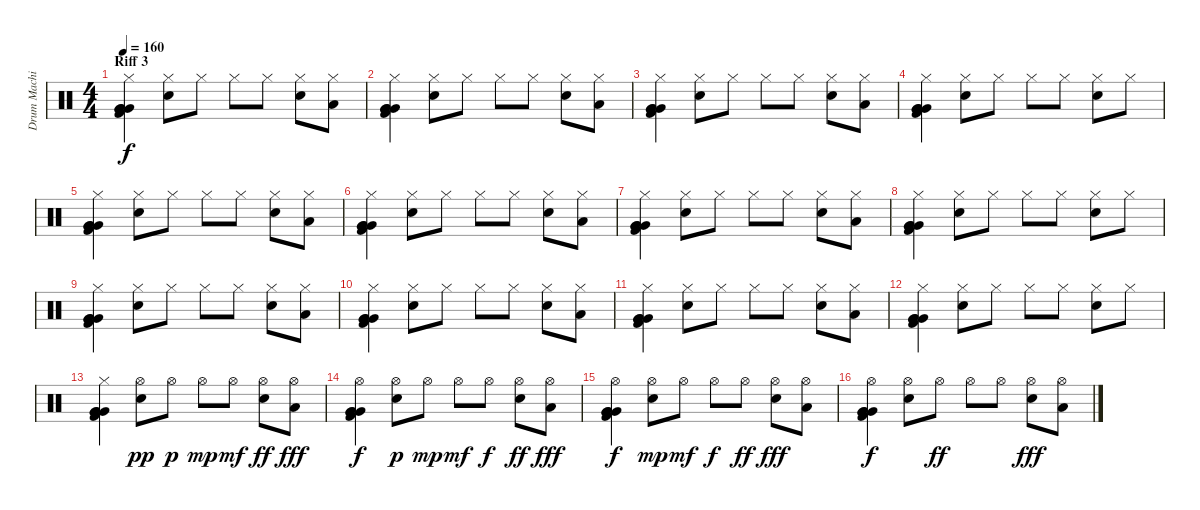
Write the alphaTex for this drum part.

\track ("Drum Machine" "Drum Machi") {instrument percussion}
\staff {score}
\articulation defaults
\ts (4 4)
\section ("" "Riff 3")
\tempo 160
\clef neutral
\ks c
("Hi-Hat (closed)" "Very Low Tom (hit)" "Very Low Tom (hit)" "Very Low Tom (hit)" "Kick (hit) 2").4{dy f} ("Hi-Hat (closed)" "Electric Snare (hit)").8 "Hi-Hat (closed)".8 "Hi-Hat (closed)".8 "Hi-Hat (closed)".8 ("Hi-Hat (closed)" "Electric Snare (hit)").8 ("Hi-Hat (closed)" "Low Floor Tom (hit)").8 |
("Hi-Hat (closed)" "Very Low Tom (hit)" "Very Low Tom (hit)" "Very Low Tom (hit)" "Kick (hit) 2").4 ("Hi-Hat (closed)" "Electric Snare (hit)").8 "Hi-Hat (closed)".8 "Hi-Hat (closed)".8 "Hi-Hat (closed)".8 ("Hi-Hat (closed)" "Electric Snare (hit)").8 ("Hi-Hat (closed)" "Low Floor Tom (hit)").8 |
("Hi-Hat (closed)" "Very Low Tom (hit)" "Very Low Tom (hit)" "Very Low Tom (hit)" "Kick (hit) 2").4 ("Hi-Hat (closed)" "Electric Snare (hit)").8 "Hi-Hat (closed)".8 "Hi-Hat (closed)".8 "Hi-Hat (closed)".8 ("Hi-Hat (closed)" "Electric Snare (hit)").8 ("Hi-Hat (closed)" "Low Floor Tom (hit)").8 |
("Hi-Hat (closed)" "Very Low Tom (hit)" "Very Low Tom (hit)" "Very Low Tom (hit)" "Kick (hit) 2").4 ("Hi-Hat (closed)" "Electric Snare (hit)").8 "Hi-Hat (closed)".8 "Hi-Hat (closed)".8 "Hi-Hat (closed)".8 ("Hi-Hat (closed)" "Electric Snare (hit)").8 "Hi-Hat (closed)".8 |
("Hi-Hat (closed)" "Very Low Tom (hit)" "Very Low Tom (hit)" "Very Low Tom (hit)" "Kick (hit) 2").4 ("Hi-Hat (closed)" "Electric Snare (hit)").8 "Hi-Hat (closed)".8 "Hi-Hat (closed)".8 "Hi-Hat (closed)".8 ("Hi-Hat (closed)" "Electric Snare (hit)").8 ("Hi-Hat (closed)" "Low Floor Tom (hit)").8 |
("Hi-Hat (closed)" "Very Low Tom (hit)" "Very Low Tom (hit)" "Very Low Tom (hit)" "Kick (hit) 2").4 ("Hi-Hat (closed)" "Electric Snare (hit)").8 "Hi-Hat (closed)".8 "Hi-Hat (closed)".8 "Hi-Hat (closed)".8 ("Hi-Hat (closed)" "Electric Snare (hit)").8 ("Hi-Hat (closed)" "Low Floor Tom (hit)").8 |
("Hi-Hat (closed)" "Very Low Tom (hit)" "Very Low Tom (hit)" "Very Low Tom (hit)" "Kick (hit) 2").4 ("Hi-Hat (closed)" "Electric Snare (hit)").8 "Hi-Hat (closed)".8 "Hi-Hat (closed)".8 "Hi-Hat (closed)".8 ("Hi-Hat (closed)" "Electric Snare (hit)").8 ("Hi-Hat (closed)" "Low Floor Tom (hit)").8 |
("Hi-Hat (closed)" "Very Low Tom (hit)" "Very Low Tom (hit)" "Very Low Tom (hit)" "Kick (hit) 2").4 ("Hi-Hat (closed)" "Electric Snare (hit)").8 "Hi-Hat (closed)".8 "Hi-Hat (closed)".8 "Hi-Hat (closed)".8 ("Hi-Hat (closed)" "Electric Snare (hit)").8 "Hi-Hat (closed)".8 |
("Hi-Hat (closed)" "Very Low Tom (hit)" "Very Low Tom (hit)" "Very Low Tom (hit)" "Kick (hit) 2").4 ("Hi-Hat (closed)" "Electric Snare (hit)").8 "Hi-Hat (closed)".8 "Hi-Hat (closed)".8 "Hi-Hat (closed)".8 ("Hi-Hat (closed)" "Electric Snare (hit)").8 ("Hi-Hat (closed)" "Low Floor Tom (hit)").8 |
("Hi-Hat (closed)" "Very Low Tom (hit)" "Very Low Tom (hit)" "Very Low Tom (hit)" "Kick (hit) 2").4 ("Hi-Hat (closed)" "Electric Snare (hit)").8 "Hi-Hat (closed)".8 "Hi-Hat (closed)".8 "Hi-Hat (closed)".8 ("Hi-Hat (closed)" "Electric Snare (hit)").8 ("Hi-Hat (closed)" "Low Floor Tom (hit)").8 |
("Hi-Hat (closed)" "Very Low Tom (hit)" "Very Low Tom (hit)" "Very Low Tom (hit)" "Kick (hit) 2").4 ("Hi-Hat (closed)" "Electric Snare (hit)").8 "Hi-Hat (closed)".8 "Hi-Hat (closed)".8 "Hi-Hat (closed)".8 ("Hi-Hat (closed)" "Electric Snare (hit)").8 ("Hi-Hat (closed)" "Low Floor Tom (hit)").8 |
("Hi-Hat (closed)" "Very Low Tom (hit)" "Very Low Tom (hit)" "Very Low Tom (hit)" "Kick (hit) 2").4 ("Hi-Hat (closed)" "Electric Snare (hit)").8 "Hi-Hat (closed)".8 "Hi-Hat (closed)".8 "Hi-Hat (closed)".8 ("Hi-Hat (closed)" "Electric Snare (hit)").8 "Hi-Hat (closed)".8 |
("Hi-Hat (closed)" "Very Low Tom (hit)" "Very Low Tom (hit)" "Very Low Tom (hit)" "Kick (hit) 2").4 ("Hi-Hat (open)" "Electric Snare (hit)").8{dy pp} "Hi-Hat (open)".8{dy p} "Hi-Hat (open)".8{dy mp} "Hi-Hat (open)".8{dy mf} ("Hi-Hat (open)" "Electric Snare (hit)").8{dy ff} ("Hi-Hat (open)" "Low Floor Tom (hit)").8{dy fff} |
("Hi-Hat (open)" "Very Low Tom (hit)" "Very Low Tom (hit)" "Very Low Tom (hit)" "Kick (hit) 2").4{dy f} ("Hi-Hat (open)" "Electric Snare (hit)").8{dy p} "Hi-Hat (open)".8{dy mp} "Hi-Hat (open)".8{dy mf} "Hi-Hat (open)".8{dy f} ("Hi-Hat (open)" "Electric Snare (hit)").8{dy ff} ("Hi-Hat (open)" "Low Floor Tom (hit)").8{dy fff} |
("Hi-Hat (open)" "Very Low Tom (hit)" "Very Low Tom (hit)" "Very Low Tom (hit)" "Kick (hit) 2").4{dy f} ("Hi-Hat (open)" "Electric Snare (hit)").8{dy mp} "Hi-Hat (open)".8{dy mf} "Hi-Hat (open)".8{dy f} "Hi-Hat (open)".8{dy ff} ("Hi-Hat (open)" "Electric Snare (hit)").8{dy fff} ("Hi-Hat (open)" "Low Floor Tom (hit)").8 |
("Hi-Hat (open)" "Very Low Tom (hit)" "Very Low Tom (hit)" "Very Low Tom (hit)" "Kick (hit) 2").4{dy f} ("Hi-Hat (open)" "Electric Snare (hit)").8 "Hi-Hat (open)".8{dy ff} "Hi-Hat (open)".8 "Hi-Hat (open)".8 ("Hi-Hat (open)" "Electric Snare (hit)").8{dy fff} ("Hi-Hat (open)" "Low Floor Tom (hit)").8
